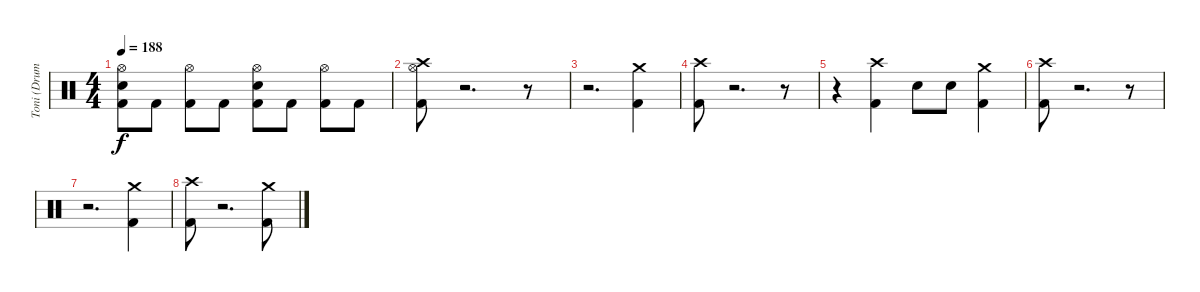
\track ("Toni (Drums)" "Toni (Drum") {instrument percussion}
\staff {score}
\articulation defaults
\ts (4 4)
\tempo 188
\clef neutral
\ks c
("Hi-Hat (open)" "Electric Snare (hit)" "Kick (hit) 2").8{dy f} "Kick (hit) 2".8 ("Hi-Hat (open)" "Kick (hit) 2").8 "Kick (hit) 2".8 ("Hi-Hat (open)" "Electric Snare (hit)" "Kick (hit) 2").8 "Kick (hit) 2".8 ("Hi-Hat (open)" "Kick (hit) 2").8 "Kick (hit) 2".8 |
("Crash high (hit)" "Hi-Hat (open)" "Kick (hit) 2").8 r.2{d} r.8 |
r.2{d} ("Crash medium (hit)" "Kick (hit) 2").4 |
("Crash high (hit)" "Kick (hit) 2").8 r.2{d} r.8 |
r.4 ("Crash high (hit)" "Kick (hit) 2").4 "Electric Snare (hit)".8 "Electric Snare (hit)".8 ("Crash medium (hit)" "Kick (hit) 2").4 |
("Crash high (hit)" "Kick (hit) 2").8 r.2{d} r.8 |
r.2{d} ("Crash medium (hit)" "Kick (hit) 2").4 |
("Crash high (hit)" "Kick (hit) 2").8 r.2{d} ("Crash medium (hit)" "Kick (hit) 2").8
